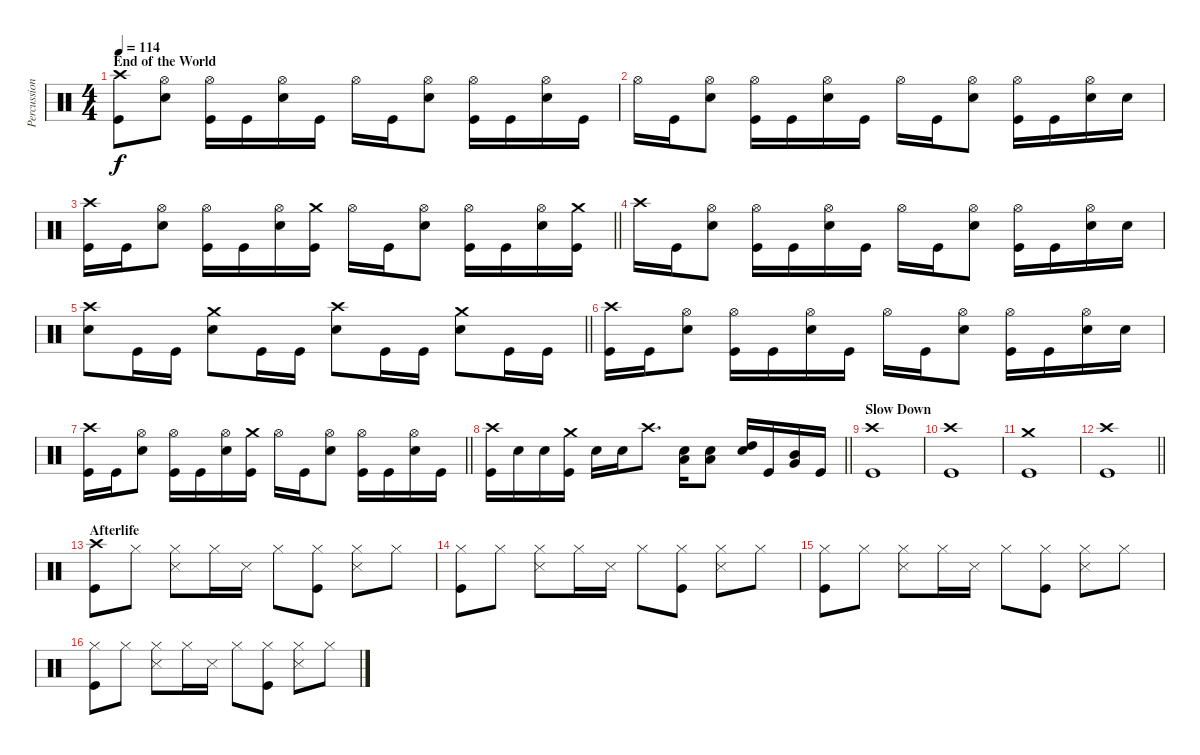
\track ("Percussion" "Percussion") {instrument percussion}
\staff {score}
\articulation defaults
\ts (4 4)
\section ("" "End of the World")
\tempo 114
\clef neutral
\ks c
("Crash high (hit)" "Kick (hit)").8{dy f} ("Hi-Hat (open)" "Electric Snare (hit)").8 ("Hi-Hat (open)" "Kick (hit)").16 "Kick (hit)".16 ("Hi-Hat (open)" "Electric Snare (hit)").16 "Kick (hit)".16 "Hi-Hat (open)".16 "Kick (hit)".16 ("Hi-Hat (open)" "Electric Snare (hit)").8 ("Hi-Hat (open)" "Kick (hit)").16 "Kick (hit)".16 ("Hi-Hat (open)" "Electric Snare (hit)").16 "Kick (hit)".16 |
"Hi-Hat (open)".16 "Kick (hit)".16 ("Hi-Hat (open)" "Electric Snare (hit)").8 ("Hi-Hat (open)" "Kick (hit)").16 "Kick (hit)".16 ("Hi-Hat (open)" "Electric Snare (hit)").16 "Kick (hit)".16 "Hi-Hat (open)".16 "Kick (hit)".16 ("Hi-Hat (open)" "Electric Snare (hit)").8 ("Hi-Hat (open)" "Kick (hit)").16 "Kick (hit)".16 ("Hi-Hat (open)" "Electric Snare (hit)").16 "Electric Snare (hit)".16 |
\barLineRight lightlight
("Crash high (hit)" "Kick (hit)").16 "Kick (hit)".16 ("Hi-Hat (open)" "Electric Snare (hit)").8 ("Hi-Hat (open)" "Kick (hit)").16 "Kick (hit)".16 ("Hi-Hat (open)" "Electric Snare (hit)").16 ("Crash medium (hit)" "Kick (hit)").16 "Hi-Hat (open)".16 "Kick (hit)".16 ("Hi-Hat (open)" "Electric Snare (hit)").8 ("Hi-Hat (open)" "Kick (hit)").16 "Kick (hit)".16 ("Hi-Hat (open)" "Electric Snare (hit)").16 ("Crash medium (hit)" "Kick (hit)").16 |
"Crash high (hit)".16 "Kick (hit)".16 ("Hi-Hat (open)" "Electric Snare (hit)").8 ("Hi-Hat (open)" "Kick (hit)").16 "Kick (hit)".16 ("Hi-Hat (open)" "Electric Snare (hit)").16 "Kick (hit)".16 "Hi-Hat (open)".16 "Kick (hit)".16 ("Hi-Hat (open)" "Electric Snare (hit)").8 ("Hi-Hat (open)" "Kick (hit)").16 "Kick (hit)".16 ("Hi-Hat (open)" "Electric Snare (hit)").16 "Electric Snare (hit)".16 |
\barLineRight lightlight
("Crash high (hit)" "Electric Snare (hit)").8 "Kick (hit)".16 "Kick (hit)".16 ("Crash medium (hit)" "Electric Snare (hit)").8 "Kick (hit)".16 "Kick (hit)".16 ("Crash high (hit)" "Electric Snare (hit)").8 "Kick (hit)".16 "Kick (hit)".16 ("Crash medium (hit)" "Electric Snare (hit)").8 "Kick (hit)".16 "Kick (hit)".16 |
("Crash high (hit)" "Kick (hit)").16 "Kick (hit)".16 ("Hi-Hat (open)" "Electric Snare (hit)").8 ("Hi-Hat (open)" "Kick (hit)").16 "Kick (hit)".16 ("Hi-Hat (open)" "Electric Snare (hit)").16 "Kick (hit)".16 "Hi-Hat (open)".16 "Kick (hit)".16 ("Hi-Hat (open)" "Electric Snare (hit)").8 ("Hi-Hat (open)" "Kick (hit)").16 "Kick (hit)".16 ("Hi-Hat (open)" "Electric Snare (hit)").16 "Electric Snare (hit)".16 |
\barLineRight lightlight
("Crash high (hit)" "Kick (hit)").16 "Kick (hit)".16 ("Hi-Hat (open)" "Electric Snare (hit)").8 ("Hi-Hat (open)" "Kick (hit)").16 "Kick (hit)".16 ("Hi-Hat (open)" "Electric Snare (hit)").16 ("Crash medium (hit)" "Kick (hit)").16 "Hi-Hat (open)".16 "Kick (hit)".16 ("Hi-Hat (open)" "Electric Snare (hit)").8 ("Hi-Hat (open)" "Kick (hit)").16 "Kick (hit)".16 ("Hi-Hat (open)" "Electric Snare (hit)").16 "Kick (hit)".16 |
\barLineRight lightlight
("Crash high (hit)" "Kick (hit)").16 "Electric Snare (hit)".16 "Electric Snare (hit)".16 ("Crash medium (hit)" "Kick (hit)").16 "Electric Snare (hit)".16 "Electric Snare (hit)".16 "Crash high (hit)".8{d} ("Electric Snare (hit)" "Low Tom (hit)").16 ("Electric Snare (hit)" "Low Tom (hit)").8 ("Electric Snare (hit)" "High Tom (hit)").16 "Kick (hit)".16 ("Mid Tom (hit)" "Very Low Tom (hit)").16 "Kick (hit)".16 |
\section ("" "Slow Down")
("Crash high (hit)" "Kick (hit)").1 |
("Crash high (hit)" "Kick (hit)").1 |
("Crash medium (hit)" "Kick (hit)").1 |
\barLineRight lightlight
("Crash high (hit)" "Kick (hit)").1 |
\section ("" "Afterlife")
("Crash high (hit)" "Kick (hit)").8 "Hi-Hat (closed)".8 ("Hi-Hat (closed)" "Snare (side stick) 3").8 "Hi-Hat (closed)".16 "Snare (side stick) 3".16 "Hi-Hat (closed)".8 ("Hi-Hat (closed)" "Kick (hit)").8 ("Hi-Hat (closed)" "Snare (side stick) 3").8 "Hi-Hat (closed)".8 |
("Hi-Hat (closed)" "Kick (hit)").8 "Hi-Hat (closed)".8 ("Hi-Hat (closed)" "Snare (side stick) 3").8 "Hi-Hat (closed)".16 "Snare (side stick) 3".16 "Hi-Hat (closed)".8 ("Hi-Hat (closed)" "Kick (hit)").8 ("Hi-Hat (closed)" "Snare (side stick) 3").8 "Hi-Hat (closed)".8 |
("Hi-Hat (closed)" "Kick (hit)").8 "Hi-Hat (closed)".8 ("Hi-Hat (closed)" "Snare (side stick) 3").8 "Hi-Hat (closed)".16 "Snare (side stick) 3".16 "Hi-Hat (closed)".8 ("Hi-Hat (closed)" "Kick (hit)").8 ("Hi-Hat (closed)" "Snare (side stick) 3").8 "Hi-Hat (closed)".8 |
("Hi-Hat (closed)" "Kick (hit)").8 "Hi-Hat (closed)".8 ("Hi-Hat (closed)" "Snare (side stick) 3").8 "Hi-Hat (closed)".16 "Snare (side stick) 3".16 "Hi-Hat (closed)".8 ("Hi-Hat (closed)" "Kick (hit)").8 ("Hi-Hat (closed)" "Snare (side stick) 3").8 "Hi-Hat (closed)".8
